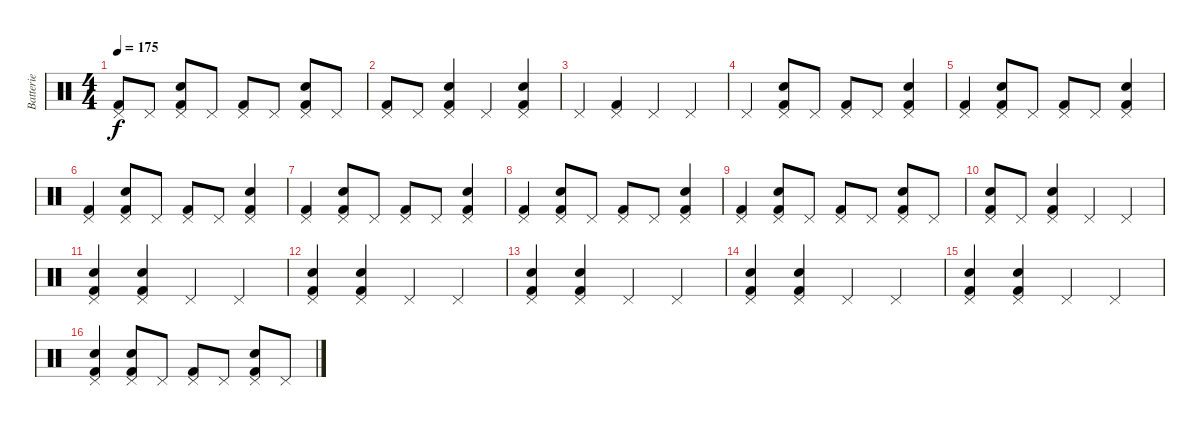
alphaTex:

\track ("Batterie" "Batterie") {instrument percussion}
\staff {score}
\articulation defaults
\ts (4 4)
\tempo 175
\clef neutral
\ks c
("Pedal Hi-Hat (hit)" "Kick (hit) 2").8{dy f} "Pedal Hi-Hat (hit)".8 ("Pedal Hi-Hat (hit)" "Electric Snare (hit)" "Kick (hit) 2").8 "Pedal Hi-Hat (hit)".8 ("Pedal Hi-Hat (hit)" "Kick (hit) 2").8 "Pedal Hi-Hat (hit)".8 ("Pedal Hi-Hat (hit)" "Electric Snare (hit)" "Kick (hit) 2").8 "Pedal Hi-Hat (hit)".8 |
("Pedal Hi-Hat (hit)" "Kick (hit) 2").8 "Pedal Hi-Hat (hit)".8 ("Pedal Hi-Hat (hit)" "Electric Snare (hit)" "Kick (hit) 2").4 "Pedal Hi-Hat (hit)".4 ("Pedal Hi-Hat (hit)" "Electric Snare (hit)" "Kick (hit) 2").4 |
"Pedal Hi-Hat (hit)".4 ("Pedal Hi-Hat (hit)" "Kick (hit) 2").4 "Pedal Hi-Hat (hit)".4 "Pedal Hi-Hat (hit)".4 |
"Pedal Hi-Hat (hit)".4 ("Pedal Hi-Hat (hit)" "Electric Snare (hit)" "Kick (hit) 2").8 "Pedal Hi-Hat (hit)".8 ("Pedal Hi-Hat (hit)" "Kick (hit) 2").8 "Pedal Hi-Hat (hit)".8 ("Pedal Hi-Hat (hit)" "Electric Snare (hit)" "Kick (hit) 2").4 |
("Pedal Hi-Hat (hit)" "Kick (hit) 2").4 ("Pedal Hi-Hat (hit)" "Electric Snare (hit)" "Kick (hit) 2").8 "Pedal Hi-Hat (hit)".8 ("Pedal Hi-Hat (hit)" "Kick (hit) 2").8 "Pedal Hi-Hat (hit)".8 ("Pedal Hi-Hat (hit)" "Electric Snare (hit)" "Kick (hit) 2").4 |
("Pedal Hi-Hat (hit)" "Kick (hit) 2").4 ("Pedal Hi-Hat (hit)" "Electric Snare (hit)" "Kick (hit) 2").8 "Pedal Hi-Hat (hit)".8 ("Pedal Hi-Hat (hit)" "Kick (hit) 2").8 "Pedal Hi-Hat (hit)".8 ("Pedal Hi-Hat (hit)" "Electric Snare (hit)" "Kick (hit) 2").4 |
("Pedal Hi-Hat (hit)" "Kick (hit) 2").4 ("Pedal Hi-Hat (hit)" "Electric Snare (hit)" "Kick (hit) 2").8 "Pedal Hi-Hat (hit)".8 ("Pedal Hi-Hat (hit)" "Kick (hit) 2").8 "Pedal Hi-Hat (hit)".8 ("Pedal Hi-Hat (hit)" "Electric Snare (hit)" "Kick (hit) 2").4 |
("Pedal Hi-Hat (hit)" "Kick (hit) 2").4 ("Pedal Hi-Hat (hit)" "Electric Snare (hit)" "Kick (hit) 2").8 "Pedal Hi-Hat (hit)".8 ("Pedal Hi-Hat (hit)" "Kick (hit) 2").8 "Pedal Hi-Hat (hit)".8 ("Pedal Hi-Hat (hit)" "Electric Snare (hit)" "Kick (hit) 2").4 |
("Pedal Hi-Hat (hit)" "Kick (hit) 2").4 ("Pedal Hi-Hat (hit)" "Electric Snare (hit)" "Kick (hit) 2").8 "Pedal Hi-Hat (hit)".8 ("Pedal Hi-Hat (hit)" "Kick (hit) 2").8 "Pedal Hi-Hat (hit)".8 ("Pedal Hi-Hat (hit)" "Electric Snare (hit)" "Kick (hit) 2").8 "Pedal Hi-Hat (hit)".8 |
("Pedal Hi-Hat (hit)" "Electric Snare (hit)" "Kick (hit) 2").8 "Pedal Hi-Hat (hit)".8 ("Pedal Hi-Hat (hit)" "Electric Snare (hit)" "Kick (hit) 2").4 "Pedal Hi-Hat (hit)".4 "Pedal Hi-Hat (hit)".4 |
("Pedal Hi-Hat (hit)" "Electric Snare (hit)" "Kick (hit) 2").4 ("Pedal Hi-Hat (hit)" "Electric Snare (hit)" "Kick (hit) 2").4 "Pedal Hi-Hat (hit)".4 "Pedal Hi-Hat (hit)".4 |
("Pedal Hi-Hat (hit)" "Electric Snare (hit)" "Kick (hit) 2").4 ("Pedal Hi-Hat (hit)" "Electric Snare (hit)" "Kick (hit) 2").4 "Pedal Hi-Hat (hit)".4 "Pedal Hi-Hat (hit)".4 |
("Pedal Hi-Hat (hit)" "Electric Snare (hit)" "Kick (hit) 2").4 ("Pedal Hi-Hat (hit)" "Electric Snare (hit)" "Kick (hit) 2").4 "Pedal Hi-Hat (hit)".4 "Pedal Hi-Hat (hit)".4 |
("Pedal Hi-Hat (hit)" "Electric Snare (hit)" "Kick (hit) 2").4 ("Pedal Hi-Hat (hit)" "Electric Snare (hit)" "Kick (hit) 2").4 "Pedal Hi-Hat (hit)".4 "Pedal Hi-Hat (hit)".4 |
("Pedal Hi-Hat (hit)" "Electric Snare (hit)" "Kick (hit) 2").4 ("Pedal Hi-Hat (hit)" "Electric Snare (hit)" "Kick (hit) 2").4 "Pedal Hi-Hat (hit)".4 "Pedal Hi-Hat (hit)".4 |
("Pedal Hi-Hat (hit)" "Electric Snare (hit)" "Kick (hit) 2").4 ("Pedal Hi-Hat (hit)" "Electric Snare (hit)" "Kick (hit) 2").8 "Pedal Hi-Hat (hit)".8 ("Pedal Hi-Hat (hit)" "Kick (hit) 2").8 "Pedal Hi-Hat (hit)".8 ("Pedal Hi-Hat (hit)" "Electric Snare (hit)" "Kick (hit) 2").8 "Pedal Hi-Hat (hit)".8
